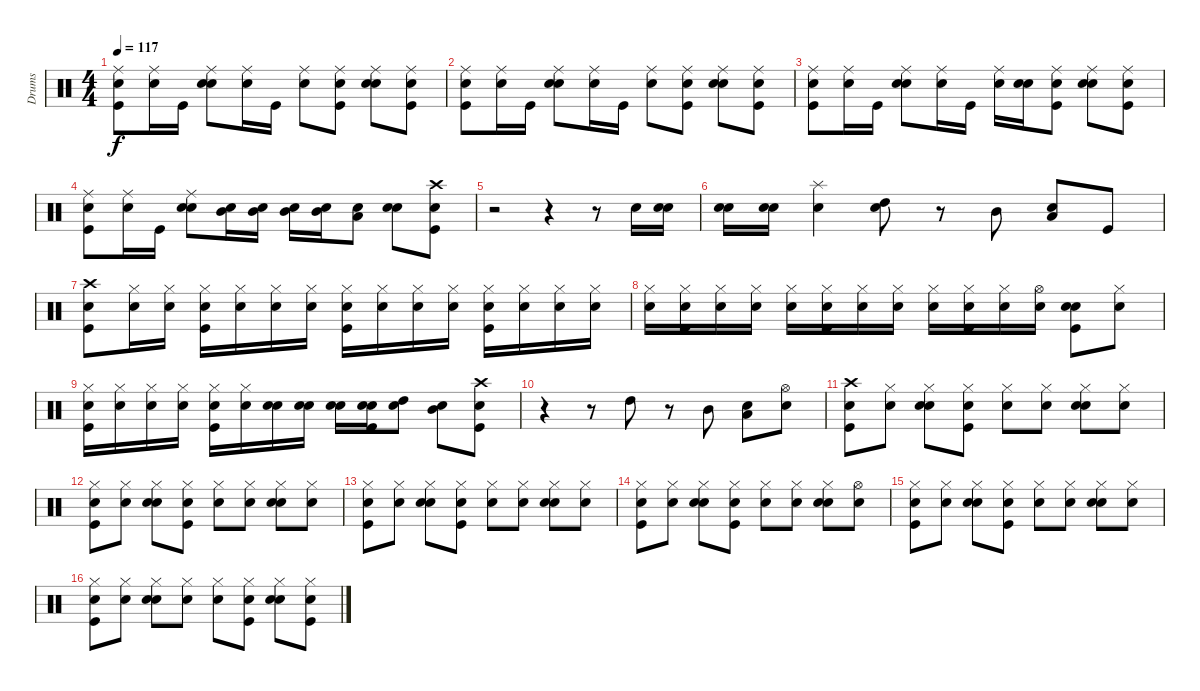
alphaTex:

\track ("Drums" "Drums") {instrument percussion}
\staff {score}
\articulation defaults
\ts (4 4)
\tempo 117
\clef neutral
\ks c
("Snare (hit)" "Kick (hit)" "Ride (middle)").8{dy f} ("Snare (hit)" "Ride (middle)").16 "Kick (hit)".16 ("Snare (hit)" "Electric Snare (hit)" "Ride (middle)").8 ("Snare (hit)" "Ride (middle)").16 "Kick (hit)".16 ("Snare (hit)" "Ride (middle)").8 ("Snare (hit)" "Kick (hit)" "Ride (middle)").8 ("Snare (hit)" "Electric Snare (hit)" "Ride (middle)").8 ("Snare (hit)" "Kick (hit)" "Ride (middle)").8 |
("Snare (hit)" "Kick (hit)" "Ride (middle)").8 ("Snare (hit)" "Ride (middle)").16 "Kick (hit)".16 ("Snare (hit)" "Electric Snare (hit)" "Ride (middle)").8 ("Snare (hit)" "Ride (middle)").16 "Kick (hit)".16 ("Snare (hit)" "Ride (middle)").8 ("Snare (hit)" "Kick (hit)" "Ride (middle)").8 ("Snare (hit)" "Electric Snare (hit)" "Ride (middle)").8 ("Snare (hit)" "Kick (hit)" "Ride (middle)").8 |
("Snare (hit)" "Kick (hit)" "Ride (middle)").8 ("Snare (hit)" "Ride (middle)").16 "Kick (hit)".16 ("Snare (hit)" "Electric Snare (hit)" "Ride (middle)").8 ("Snare (hit)" "Ride (middle)").16 "Kick (hit)".16 ("Snare (hit)" "Ride (middle)").16 ("Snare (hit)" "Electric Snare (hit)").16 ("Snare (hit)" "Kick (hit)" "Ride (middle)").8 ("Snare (hit)" "Electric Snare (hit)" "Ride (middle)").8 ("Snare (hit)" "Kick (hit)" "Ride (middle)").8 |
("Snare (hit)" "Kick (hit)" "Ride (middle)").8 ("Snare (hit)" "Ride (middle)").16 "Kick (hit)".16 ("Snare (hit)" "Electric Snare (hit)" "Ride (middle)").8 ("Snare (hit)" "Mid Tom (hit)").16 ("Snare (hit)" "Mid Tom (hit)").16 ("Snare (hit)" "Mid Tom (hit)").16 ("Snare (hit)" "Mid Tom (hit)").16 ("Snare (hit)" "Low Tom (hit)").8 ("Snare (hit)" "Electric Snare (hit)").8 ("Snare (hit)" "Kick (hit)" "Crash high (hit)").8 |
r.2 r.4 r.8 "Electric Snare (hit)".16 ("Snare (hit)" "Electric Snare (hit)").16 |
("Snare (hit)" "Electric Snare (hit)").16 ("Snare (hit)" "Electric Snare (hit)").16 ("Snare (hit)" "Splash (hit)").4 ("Snare (hit)" "High Tom (hit)").8 r.8 "Mid Tom (hit)".8 ("Snare (hit)" "Low Tom (hit)").8 "Kick (hit)".8 |
("Snare (hit)" "Kick (hit)" "Crash high (hit)").8 ("Snare (hit)" "Hi-Hat (closed)").16 ("Snare (hit)" "Hi-Hat (closed)").16 ("Snare (hit)" "Kick (hit)" "Hi-Hat (closed)").16 ("Snare (hit)" "Hi-Hat (closed)").16 ("Snare (hit)" "Hi-Hat (closed)").16 ("Snare (hit)" "Hi-Hat (closed)").16 ("Snare (hit)" "Kick (hit)" "Hi-Hat (closed)").16 ("Snare (hit)" "Hi-Hat (closed)").16 ("Snare (hit)" "Hi-Hat (closed)").16 ("Snare (hit)" "Hi-Hat (closed)").16 ("Snare (hit)" "Kick (hit)" "Hi-Hat (closed)").16 ("Snare (hit)" "Hi-Hat (closed)").16 ("Snare (hit)" "Hi-Hat (closed)").16 ("Snare (hit)" "Hi-Hat (closed)").16 |
("Snare (hit)" "Hi-Hat (closed)").16 ("Snare (hit)" "Kick (hit)" "Hi-Hat (closed)").16 ("Snare (hit)" "Hi-Hat (closed)").16 ("Snare (hit)" "Hi-Hat (closed)").16 ("Snare (hit)" "Hi-Hat (closed)").16 ("Snare (hit)" "Kick (hit)" "Hi-Hat (closed)").16 ("Snare (hit)" "Hi-Hat (closed)").16 ("Snare (hit)" "Hi-Hat (closed)").16 ("Snare (hit)" "Hi-Hat (closed)").16 ("Snare (hit)" "Kick (hit)" "Hi-Hat (closed)").16 ("Snare (hit)" "Hi-Hat (closed)").16 ("Snare (hit)" "Hi-Hat (open)").16 ("Snare (hit)" "Kick (hit)" "Electric Snare (hit)").8 ("Snare (hit)" "Hi-Hat (closed)").8 |
("Snare (hit)" "Kick (hit)" "Hi-Hat (closed)").16 ("Snare (hit)" "Hi-Hat (closed)").16 ("Snare (hit)" "Hi-Hat (closed)").16 ("Snare (hit)" "Hi-Hat (closed)").16 ("Snare (hit)" "Kick (hit)" "Hi-Hat (closed)").16 ("Snare (hit)" "Hi-Hat (closed)").16 ("Snare (hit)" "Electric Snare (hit)").16 ("Snare (hit)" "Electric Snare (hit)").16 ("Snare (hit)" "Electric Snare (hit)").16 ("Snare (hit)" "Kick (hit)" "Electric Snare (hit)").16 ("Snare (hit)" "High Tom (hit)").8 ("Snare (hit)" "Mid Tom (hit)").8 ("Snare (hit)" "Kick (hit)" "Crash high (hit)").8 |
r.4 r.8 "High Tom (hit)".8 r.8 "Mid Tom (hit)".8 ("Snare (hit)" "Low Tom (hit)").8 ("Snare (hit)" "Hi-Hat (open)").8 |
("Snare (hit)" "Kick (hit)" "Crash high (hit)").8 ("Snare (hit)" "Hi-Hat (closed)").8 ("Snare (hit)" "Electric Snare (hit)" "Hi-Hat (closed)").8 ("Snare (hit)" "Kick (hit)" "Hi-Hat (closed)").8 ("Snare (hit)" "Hi-Hat (closed)").8 ("Snare (hit)" "Hi-Hat (closed)").8 ("Snare (hit)" "Electric Snare (hit)" "Hi-Hat (closed)").8 ("Snare (hit)" "Hi-Hat (closed)").8 |
("Snare (hit)" "Kick (hit)" "Hi-Hat (closed)").8 ("Snare (hit)" "Hi-Hat (closed)").8 ("Snare (hit)" "Electric Snare (hit)" "Hi-Hat (closed)").8 ("Snare (hit)" "Kick (hit)" "Hi-Hat (closed)").8 ("Snare (hit)" "Hi-Hat (closed)").8 ("Snare (hit)" "Hi-Hat (closed)").8 ("Snare (hit)" "Electric Snare (hit)" "Hi-Hat (closed)").8 ("Snare (hit)" "Hi-Hat (closed)").8 |
("Snare (hit)" "Kick (hit)" "Hi-Hat (closed)").8 ("Snare (hit)" "Hi-Hat (closed)").8 ("Snare (hit)" "Electric Snare (hit)" "Hi-Hat (closed)").8 ("Snare (hit)" "Kick (hit)" "Hi-Hat (closed)").8 ("Snare (hit)" "Hi-Hat (closed)").8 ("Snare (hit)" "Hi-Hat (closed)").8 ("Snare (hit)" "Electric Snare (hit)" "Hi-Hat (closed)").8 ("Snare (hit)" "Hi-Hat (closed)").8 |
("Snare (hit)" "Kick (hit)" "Hi-Hat (closed)").8 ("Snare (hit)" "Hi-Hat (closed)").8 ("Snare (hit)" "Electric Snare (hit)" "Hi-Hat (closed)").8 ("Snare (hit)" "Kick (hit)" "Hi-Hat (closed)").8 ("Snare (hit)" "Hi-Hat (closed)").8 ("Snare (hit)" "Hi-Hat (closed)").8 ("Snare (hit)" "Electric Snare (hit)" "Hi-Hat (closed)").8 ("Snare (hit)" "Hi-Hat (open)").8 |
("Snare (hit)" "Kick (hit)" "Hi-Hat (closed)").8 ("Snare (hit)" "Hi-Hat (closed)").8 ("Snare (hit)" "Electric Snare (hit)" "Hi-Hat (closed)").8 ("Snare (hit)" "Kick (hit)" "Hi-Hat (closed)").8 ("Snare (hit)" "Hi-Hat (closed)").8 ("Snare (hit)" "Hi-Hat (closed)").8 ("Snare (hit)" "Electric Snare (hit)" "Hi-Hat (closed)").8 ("Snare (hit)" "Hi-Hat (closed)").8 |
("Snare (hit)" "Kick (hit)" "Hi-Hat (closed)").8 ("Snare (hit)" "Hi-Hat (closed)").8 ("Snare (hit)" "Electric Snare (hit)" "Hi-Hat (closed)").8 ("Snare (hit)" "Hi-Hat (closed)").8 ("Snare (hit)" "Hi-Hat (closed)").8 ("Snare (hit)" "Kick (hit)" "Hi-Hat (closed)").8 ("Snare (hit)" "Electric Snare (hit)" "Hi-Hat (closed)").8 ("Snare (hit)" "Kick (hit)" "Hi-Hat (closed)").8
